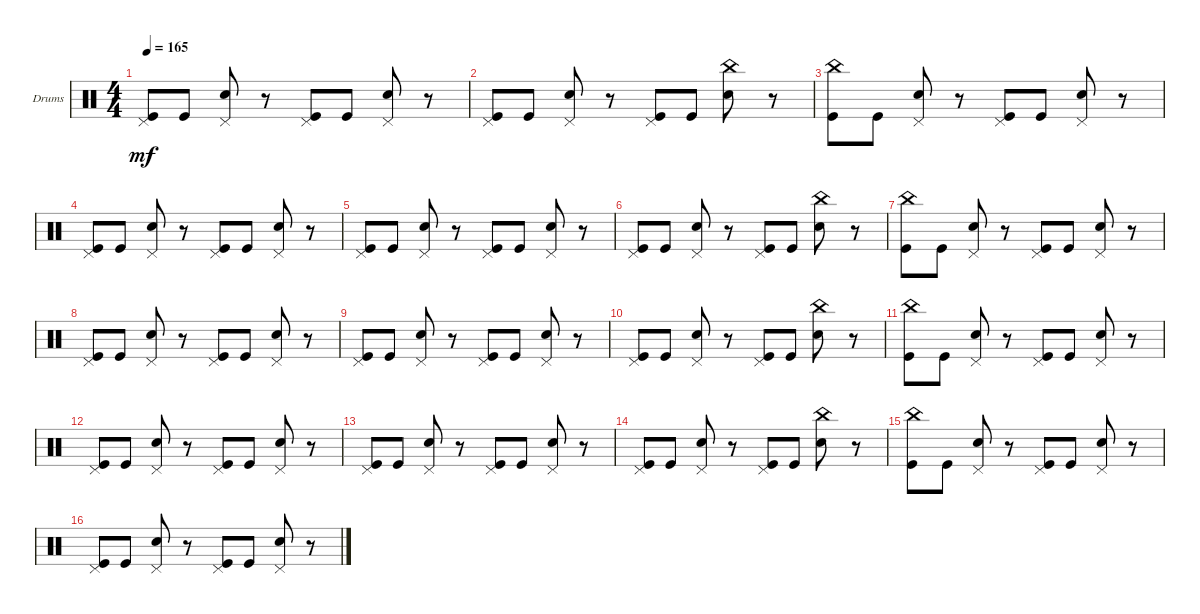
\defaultSystemsLayout 4
\bracketExtendMode groupsimilarinstruments
\firstSystemTrackNameOrientation horizontal
\otherSystemsTrackNameOrientation horizontal
\track ("Drumkit" "Drums") {instrument percussion}
\staff {score}
\articulation defaults
\ts (4 4)
\tempo 165
\clef neutral
\ks c
("Pedal Hi-Hat (hit)" "Kick (hit)").8{dy mf} "Kick (hit)".8 ("Pedal Hi-Hat (hit)" "Snare (hit) 2").8 r.8 ("Pedal Hi-Hat (hit)" "Kick (hit)").8 "Kick (hit)".8 ("Pedal Hi-Hat (hit)" "Snare (hit) 2").8 r.8 |
("Pedal Hi-Hat (hit)" "Kick (hit)").8 "Kick (hit)".8 ("Pedal Hi-Hat (hit)" "Snare (hit) 2").8 r.8 ("Pedal Hi-Hat (hit)" "Kick (hit)").8 "Kick (hit)".8 ("Snare (hit) 2" "China (hit)").8 r.8 |
("Kick (hit)" "China (hit)").8 "Kick (hit)".8 ("Pedal Hi-Hat (hit)" "Snare (hit) 2").8 r.8 ("Pedal Hi-Hat (hit)" "Kick (hit)").8 "Kick (hit)".8 ("Pedal Hi-Hat (hit)" "Snare (hit) 2").8 r.8 |
("Pedal Hi-Hat (hit)" "Kick (hit)").8 "Kick (hit)".8 ("Pedal Hi-Hat (hit)" "Snare (hit) 2").8 r.8 ("Pedal Hi-Hat (hit)" "Kick (hit)").8 "Kick (hit)".8 ("Pedal Hi-Hat (hit)" "Snare (hit) 2").8 r.8 |
("Pedal Hi-Hat (hit)" "Kick (hit)").8 "Kick (hit)".8 ("Pedal Hi-Hat (hit)" "Snare (hit) 2").8 r.8 ("Pedal Hi-Hat (hit)" "Kick (hit)").8 "Kick (hit)".8 ("Pedal Hi-Hat (hit)" "Snare (hit) 2").8 r.8 |
("Pedal Hi-Hat (hit)" "Kick (hit)").8 "Kick (hit)".8 ("Pedal Hi-Hat (hit)" "Snare (hit) 2").8 r.8 ("Pedal Hi-Hat (hit)" "Kick (hit)").8 "Kick (hit)".8 ("Snare (hit) 2" "China (hit)").8 r.8 |
("Kick (hit)" "China (hit)").8 "Kick (hit)".8 ("Pedal Hi-Hat (hit)" "Snare (hit) 2").8 r.8 ("Pedal Hi-Hat (hit)" "Kick (hit)").8 "Kick (hit)".8 ("Pedal Hi-Hat (hit)" "Snare (hit) 2").8 r.8 |
("Pedal Hi-Hat (hit)" "Kick (hit)").8 "Kick (hit)".8 ("Pedal Hi-Hat (hit)" "Snare (hit) 2").8 r.8 ("Pedal Hi-Hat (hit)" "Kick (hit)").8 "Kick (hit)".8 ("Pedal Hi-Hat (hit)" "Snare (hit) 2").8 r.8 |
("Pedal Hi-Hat (hit)" "Kick (hit)").8 "Kick (hit)".8 ("Pedal Hi-Hat (hit)" "Snare (hit) 2").8 r.8 ("Pedal Hi-Hat (hit)" "Kick (hit)").8 "Kick (hit)".8 ("Pedal Hi-Hat (hit)" "Snare (hit) 2").8 r.8 |
("Pedal Hi-Hat (hit)" "Kick (hit)").8 "Kick (hit)".8 ("Pedal Hi-Hat (hit)" "Snare (hit) 2").8 r.8 ("Pedal Hi-Hat (hit)" "Kick (hit)").8 "Kick (hit)".8 ("Snare (hit) 2" "China (hit)").8 r.8 |
("Kick (hit)" "China (hit)").8 "Kick (hit)".8 ("Pedal Hi-Hat (hit)" "Snare (hit) 2").8 r.8 ("Pedal Hi-Hat (hit)" "Kick (hit)").8 "Kick (hit)".8 ("Pedal Hi-Hat (hit)" "Snare (hit) 2").8 r.8 |
("Pedal Hi-Hat (hit)" "Kick (hit)").8 "Kick (hit)".8 ("Pedal Hi-Hat (hit)" "Snare (hit) 2").8 r.8 ("Pedal Hi-Hat (hit)" "Kick (hit)").8 "Kick (hit)".8 ("Pedal Hi-Hat (hit)" "Snare (hit) 2").8 r.8 |
("Pedal Hi-Hat (hit)" "Kick (hit)").8 "Kick (hit)".8 ("Pedal Hi-Hat (hit)" "Snare (hit) 2").8 r.8 ("Pedal Hi-Hat (hit)" "Kick (hit)").8 "Kick (hit)".8 ("Pedal Hi-Hat (hit)" "Snare (hit) 2").8 r.8 |
("Pedal Hi-Hat (hit)" "Kick (hit)").8 "Kick (hit)".8 ("Pedal Hi-Hat (hit)" "Snare (hit) 2").8 r.8 ("Pedal Hi-Hat (hit)" "Kick (hit)").8 "Kick (hit)".8 ("Snare (hit) 2" "China (hit)").8 r.8 |
("Kick (hit)" "China (hit)").8 "Kick (hit)".8 ("Pedal Hi-Hat (hit)" "Snare (hit) 2").8 r.8 ("Pedal Hi-Hat (hit)" "Kick (hit)").8 "Kick (hit)".8 ("Pedal Hi-Hat (hit)" "Snare (hit) 2").8 r.8 |
("Pedal Hi-Hat (hit)" "Kick (hit)").8 "Kick (hit)".8 ("Pedal Hi-Hat (hit)" "Snare (hit) 2").8 r.8 ("Pedal Hi-Hat (hit)" "Kick (hit)").8 "Kick (hit)".8 ("Pedal Hi-Hat (hit)" "Snare (hit) 2").8 r.8
